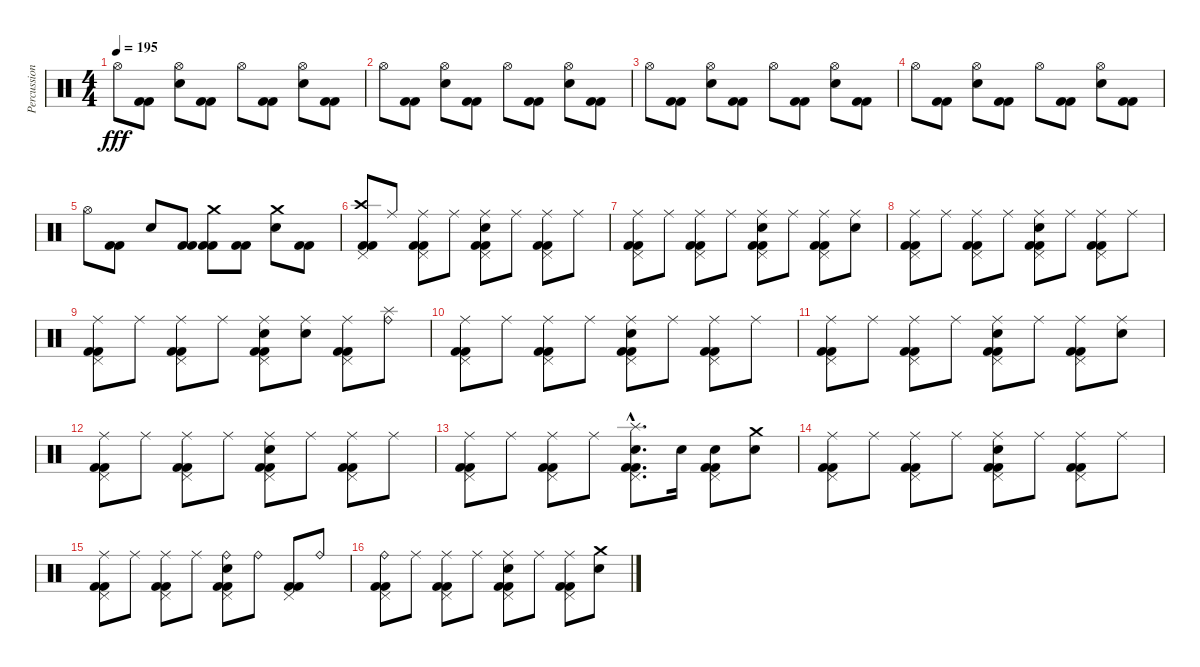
\track ("Percussions" "Percussion") {instrument percussion}
\staff {score}
\articulation defaults
\ts (4 4)
\tempo 195
\clef neutral
\ks c "Hi-Hat (open)".8{dy fff}
("Kick (hit) 2" "Kick (hit) 2").8 ("Hi-Hat (open)" "Electric Snare (hit)").8 ("Kick (hit) 2" "Kick (hit) 2").8 "Hi-Hat (open)".8 ("Kick (hit) 2" "Kick (hit) 2").8 ("Hi-Hat (open)" "Electric Snare (hit)").8 ("Kick (hit) 2" "Kick (hit) 2").8 |
"Hi-Hat (open)".8 ("Kick (hit) 2" "Kick (hit) 2").8 ("Hi-Hat (open)" "Electric Snare (hit)").8 ("Kick (hit) 2" "Kick (hit) 2").8 "Hi-Hat (open)".8 ("Kick (hit) 2" "Kick (hit) 2").8 ("Hi-Hat (open)" "Electric Snare (hit)").8 ("Kick (hit) 2" "Kick (hit) 2").8 |
"Hi-Hat (open)".8 ("Kick (hit) 2" "Kick (hit) 2").8 ("Hi-Hat (open)" "Electric Snare (hit)").8 ("Kick (hit) 2" "Kick (hit) 2").8 "Hi-Hat (open)".8 ("Kick (hit) 2" "Kick (hit) 2").8 ("Hi-Hat (open)" "Electric Snare (hit)").8 ("Kick (hit) 2" "Kick (hit) 2").8 |
"Hi-Hat (open)".8 ("Kick (hit) 2" "Kick (hit) 2").8 ("Hi-Hat (open)" "Electric Snare (hit)").8 ("Kick (hit) 2" "Kick (hit) 2").8 "Hi-Hat (open)".8 ("Kick (hit) 2" "Kick (hit) 2").8 ("Hi-Hat (open)" "Electric Snare (hit)").8 ("Kick (hit) 2" "Kick (hit) 2").8 |
"Hi-Hat (open)".8 ("Kick (hit) 2" "Kick (hit) 2").8 "Electric Snare (hit)".8 ("Kick (hit) 2" "Kick (hit) 2").8 ("Crash medium (hit)" "Kick (hit) 2" "Kick (hit) 2").8 ("Kick (hit) 2" "Kick (hit) 2").8 ("Crash medium (hit)" "Electric Snare (hit)").8 ("Kick (hit) 2" "Kick (hit) 2").8 |
("Crash high (hit)" "Pedal Hi-Hat (hit)" "Kick (hit) 2" "Kick (hit) 2").8 "Ride (middle)".8 ("Ride (middle)" "Pedal Hi-Hat (hit)" "Kick (hit) 2" "Kick (hit) 2").8 "Ride (middle)".8 ("Ride (middle)" "Electric Snare (hit)" "Pedal Hi-Hat (hit)" "Kick (hit) 2" "Kick (hit) 2").8 "Ride (middle)".8 ("Ride (middle)" "Pedal Hi-Hat (hit)" "Kick (hit) 2" "Kick (hit) 2").8 "Ride (middle)".8 |
("Ride (middle)" "Pedal Hi-Hat (hit)" "Kick (hit) 2" "Kick (hit) 2").8 "Ride (middle)".8 ("Ride (middle)" "Pedal Hi-Hat (hit)" "Kick (hit) 2" "Kick (hit) 2").8 "Ride (middle)".8 ("Ride (middle)" "Electric Snare (hit)" "Pedal Hi-Hat (hit)" "Kick (hit) 2" "Kick (hit) 2").8 "Ride (middle)".8 ("Ride (middle)" "Pedal Hi-Hat (hit)" "Kick (hit) 2" "Kick (hit) 2").8 ("Ride (middle)" "Electric Snare (hit)").8 |
("Ride (middle)" "Pedal Hi-Hat (hit)" "Kick (hit) 2" "Kick (hit) 2").8 "Ride (middle)".8 ("Ride (middle)" "Pedal Hi-Hat (hit)" "Kick (hit) 2" "Kick (hit) 2").8 "Ride (middle)".8 ("Ride (middle)" "Electric Snare (hit)" "Pedal Hi-Hat (hit)" "Kick (hit) 2" "Kick (hit) 2").8 "Ride (middle)".8 ("Ride (middle)" "Pedal Hi-Hat (hit)" "Kick (hit) 2" "Kick (hit) 2").8 "Ride (middle)".8 |
("Ride (middle)" "Pedal Hi-Hat (hit)" "Kick (hit) 2" "Kick (hit) 2").8 "Ride (middle)".8 ("Ride (middle)" "Pedal Hi-Hat (hit)" "Kick (hit) 2" "Kick (hit) 2").8 "Ride (middle)".8 ("Ride (middle)" "Electric Snare (hit)" "Pedal Hi-Hat (hit)" "Kick (hit) 2" "Kick (hit) 2").8 ("Ride (middle)" "Electric Snare (hit)").8 ("Ride (middle)" "Pedal Hi-Hat (hit)" "Kick (hit) 2" "Kick (hit) 2").8 ("Ride (bell)" "Splash (hit)").8 |
("Ride (middle)" "Pedal Hi-Hat (hit)" "Kick (hit) 2" "Kick (hit) 2").8 "Ride (middle)".8 ("Ride (middle)" "Pedal Hi-Hat (hit)" "Kick (hit) 2" "Kick (hit) 2").8 "Ride (middle)".8 ("Ride (middle)" "Electric Snare (hit)" "Pedal Hi-Hat (hit)" "Kick (hit) 2" "Kick (hit) 2").8 "Ride (middle)".8 ("Ride (middle)" "Pedal Hi-Hat (hit)" "Kick (hit) 2" "Kick (hit) 2").8 "Ride (middle)".8 |
("Ride (middle)" "Pedal Hi-Hat (hit)" "Kick (hit) 2" "Kick (hit) 2").8 "Ride (middle)".8 ("Ride (middle)" "Pedal Hi-Hat (hit)" "Kick (hit) 2" "Kick (hit) 2").8 "Ride (middle)".8 ("Ride (middle)" "Electric Snare (hit)" "Pedal Hi-Hat (hit)" "Kick (hit) 2" "Kick (hit) 2").8 "Ride (middle)".8 ("Ride (middle)" "Pedal Hi-Hat (hit)" "Kick (hit) 2" "Kick (hit) 2").8 ("Ride (middle)" "Electric Snare (hit)").8 |
("Ride (middle)" "Pedal Hi-Hat (hit)" "Kick (hit) 2" "Kick (hit) 2").8 "Ride (middle)".8 ("Ride (middle)" "Pedal Hi-Hat (hit)" "Kick (hit) 2" "Kick (hit) 2").8 "Ride (middle)".8 ("Ride (middle)" "Electric Snare (hit)" "Pedal Hi-Hat (hit)" "Kick (hit) 2" "Kick (hit) 2").8 "Ride (middle)".8 ("Ride (middle)" "Pedal Hi-Hat (hit)" "Kick (hit) 2" "Kick (hit) 2").8 "Ride (middle)".8 |
("Ride (middle)" "Pedal Hi-Hat (hit)" "Kick (hit) 2" "Kick (hit) 2").8 "Ride (middle)".8 ("Ride (middle)" "Pedal Hi-Hat (hit)" "Kick (hit) 2" "Kick (hit) 2").8 "Ride (middle)".8 ("Splash (hit)"{hac} "Electric Snare (hit)"{hac} "Pedal Hi-Hat (hit)"{hac} "Kick (hit) 2"{hac} "Kick (hit) 2"{hac}).8{d} "Electric Snare (hit)".16 ("Electric Snare (hit)" "Pedal Hi-Hat (hit)" "Kick (hit) 2" "Kick (hit) 2").8 ("Crash medium (hit)" "Electric Snare (hit)").8 |
("Ride (middle)" "Pedal Hi-Hat (hit)" "Kick (hit) 2" "Kick (hit) 2").8 "Ride (middle)".8 ("Ride (middle)" "Pedal Hi-Hat (hit)" "Kick (hit) 2" "Kick (hit) 2").8 "Ride (middle)".8 ("Ride (middle)" "Electric Snare (hit)" "Pedal Hi-Hat (hit)" "Kick (hit) 2" "Kick (hit) 2").8 "Ride (middle)".8 ("Ride (middle)" "Pedal Hi-Hat (hit)" "Kick (hit) 2" "Kick (hit) 2").8 "Ride (middle)".8 |
("Ride (middle)" "Pedal Hi-Hat (hit)" "Kick (hit) 2" "Kick (hit) 2").8 "Ride (middle)".8 ("Ride (middle)" "Pedal Hi-Hat (hit)" "Kick (hit) 2" "Kick (hit) 2").8 "Ride (middle)".8 ("Ride (bell)" "Electric Snare (hit)" "Pedal Hi-Hat (hit)" "Kick (hit) 2" "Kick (hit) 2").8 "Ride (bell)".8 ("Pedal Hi-Hat (hit)" "Kick (hit) 2" "Kick (hit) 2").8 "Ride (bell)".8 |
("Ride (bell)" "Pedal Hi-Hat (hit)" "Kick (hit) 2" "Kick (hit) 2").8 "Ride (middle)".8 ("Ride (middle)" "Pedal Hi-Hat (hit)" "Kick (hit) 2" "Kick (hit) 2").8 "Ride (middle)".8 ("Ride (middle)" "Electric Snare (hit)" "Pedal Hi-Hat (hit)" "Kick (hit) 2" "Kick (hit) 2").8 "Ride (middle)".8 ("Ride (middle)" "Pedal Hi-Hat (hit)" "Kick (hit) 2" "Kick (hit) 2").8 ("Crash medium (hit)" "Electric Snare (hit)").8
